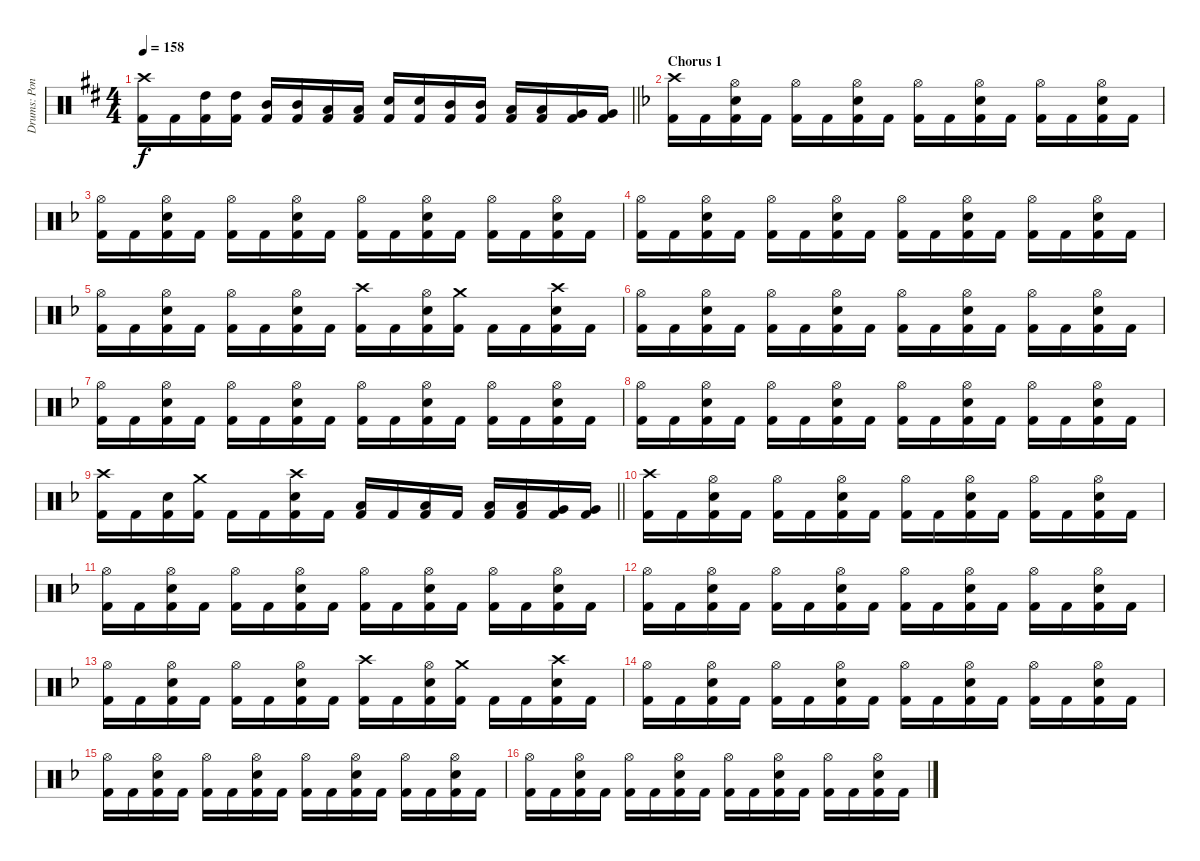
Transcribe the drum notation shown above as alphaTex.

\track ("Drums: Pontus Jansson" "Drums: Pon") {instrument percussion}
\staff {score}
\articulation defaults
\ts (4 4)
\tempo 158
\clef neutral
\barLineRight lightlight
\ks bminor
("Crash high (hit)" "Kick (hit) 2").16{dy f} "Kick (hit) 2".16 ("High Tom (hit)" "Kick (hit) 2").16 ("High Tom (hit)" "Kick (hit) 2").16 ("Mid Tom (hit)" "Kick (hit) 2").16 ("Mid Tom (hit)" "Kick (hit) 2").16 ("Low Tom (hit)" "Kick (hit) 2").16 ("Low Tom (hit)" "Kick (hit) 2").16 ("Electric Snare (hit)" "Kick (hit) 2").16 ("Electric Snare (hit)" "Kick (hit) 2").16 ("Mid Tom (hit)" "Kick (hit) 2").16 ("Mid Tom (hit)" "Kick (hit) 2").16 ("Low Tom (hit)" "Kick (hit) 2").16 ("Low Tom (hit)" "Kick (hit) 2").16 ("Very Low Tom (hit)" "Kick (hit) 2").16 ("Very Low Tom (hit)" "Kick (hit) 2").16 |
\section ("" "Chorus 1")
\ks dminor
("Crash high (hit)" "Kick (hit) 2").16 "Kick (hit) 2".16 ("Hi-Hat (open)" "Electric Snare (hit)" "Kick (hit) 2").16 "Kick (hit) 2".16 ("Hi-Hat (open)" "Kick (hit) 2").16 "Kick (hit) 2".16 ("Hi-Hat (open)" "Electric Snare (hit)" "Kick (hit) 2").16 "Kick (hit) 2".16 ("Hi-Hat (open)" "Kick (hit) 2").16 "Kick (hit) 2".16 ("Hi-Hat (open)" "Electric Snare (hit)" "Kick (hit) 2").16 "Kick (hit) 2".16 ("Hi-Hat (open)" "Kick (hit) 2").16 "Kick (hit) 2".16 ("Hi-Hat (open)" "Electric Snare (hit)" "Kick (hit) 2").16 "Kick (hit) 2".16 |
("Hi-Hat (open)" "Kick (hit) 2").16 "Kick (hit) 2".16 ("Hi-Hat (open)" "Electric Snare (hit)" "Kick (hit) 2").16 "Kick (hit) 2".16 ("Hi-Hat (open)" "Kick (hit) 2").16 "Kick (hit) 2".16 ("Hi-Hat (open)" "Electric Snare (hit)" "Kick (hit) 2").16 "Kick (hit) 2".16 ("Hi-Hat (open)" "Kick (hit) 2").16 "Kick (hit) 2".16 ("Hi-Hat (open)" "Electric Snare (hit)" "Kick (hit) 2").16 "Kick (hit) 2".16 ("Hi-Hat (open)" "Kick (hit) 2").16 "Kick (hit) 2".16 ("Hi-Hat (open)" "Electric Snare (hit)" "Kick (hit) 2").16 "Kick (hit) 2".16 |
("Hi-Hat (open)" "Kick (hit) 2").16 "Kick (hit) 2".16 ("Hi-Hat (open)" "Electric Snare (hit)" "Kick (hit) 2").16 "Kick (hit) 2".16 ("Hi-Hat (open)" "Kick (hit) 2").16 "Kick (hit) 2".16 ("Hi-Hat (open)" "Electric Snare (hit)" "Kick (hit) 2").16 "Kick (hit) 2".16 ("Hi-Hat (open)" "Kick (hit) 2").16 "Kick (hit) 2".16 ("Hi-Hat (open)" "Electric Snare (hit)" "Kick (hit) 2").16 "Kick (hit) 2".16 ("Hi-Hat (open)" "Kick (hit) 2").16 "Kick (hit) 2".16 ("Hi-Hat (open)" "Electric Snare (hit)" "Kick (hit) 2").16 "Kick (hit) 2".16 |
("Hi-Hat (open)" "Kick (hit) 2").16 "Kick (hit) 2".16 ("Hi-Hat (open)" "Electric Snare (hit)" "Kick (hit) 2").16 "Kick (hit) 2".16 ("Hi-Hat (open)" "Kick (hit) 2").16 "Kick (hit) 2".16 ("Hi-Hat (open)" "Electric Snare (hit)" "Kick (hit) 2").16 "Kick (hit) 2".16 ("Crash high (hit)" "Kick (hit) 2").16 "Kick (hit) 2".16 ("Hi-Hat (open)" "Electric Snare (hit)" "Kick (hit) 2").16 ("Crash medium (hit)" "Kick (hit) 2").16 "Kick (hit) 2".16 "Kick (hit) 2".16 ("Crash high (hit)" "Electric Snare (hit)" "Kick (hit) 2").16 "Kick (hit) 2".16 |
("Hi-Hat (open)" "Kick (hit) 2").16 "Kick (hit) 2".16 ("Hi-Hat (open)" "Electric Snare (hit)" "Kick (hit) 2").16 "Kick (hit) 2".16 ("Hi-Hat (open)" "Kick (hit) 2").16 "Kick (hit) 2".16 ("Hi-Hat (open)" "Electric Snare (hit)" "Kick (hit) 2").16 "Kick (hit) 2".16 ("Hi-Hat (open)" "Kick (hit) 2").16 "Kick (hit) 2".16 ("Hi-Hat (open)" "Electric Snare (hit)" "Kick (hit) 2").16 "Kick (hit) 2".16 ("Hi-Hat (open)" "Kick (hit) 2").16 "Kick (hit) 2".16 ("Hi-Hat (open)" "Electric Snare (hit)" "Kick (hit) 2").16 "Kick (hit) 2".16 |
("Hi-Hat (open)" "Kick (hit) 2").16 "Kick (hit) 2".16 ("Hi-Hat (open)" "Electric Snare (hit)" "Kick (hit) 2").16 "Kick (hit) 2".16 ("Hi-Hat (open)" "Kick (hit) 2").16 "Kick (hit) 2".16 ("Hi-Hat (open)" "Electric Snare (hit)" "Kick (hit) 2").16 "Kick (hit) 2".16 ("Hi-Hat (open)" "Kick (hit) 2").16 "Kick (hit) 2".16 ("Hi-Hat (open)" "Electric Snare (hit)" "Kick (hit) 2").16 "Kick (hit) 2".16 ("Hi-Hat (open)" "Kick (hit) 2").16 "Kick (hit) 2".16 ("Hi-Hat (open)" "Electric Snare (hit)" "Kick (hit) 2").16 "Kick (hit) 2".16 |
("Hi-Hat (open)" "Kick (hit) 2").16 "Kick (hit) 2".16 ("Hi-Hat (open)" "Electric Snare (hit)" "Kick (hit) 2").16 "Kick (hit) 2".16 ("Hi-Hat (open)" "Kick (hit) 2").16 "Kick (hit) 2".16 ("Hi-Hat (open)" "Electric Snare (hit)" "Kick (hit) 2").16 "Kick (hit) 2".16 ("Hi-Hat (open)" "Kick (hit) 2").16 "Kick (hit) 2".16 ("Hi-Hat (open)" "Electric Snare (hit)" "Kick (hit) 2").16 "Kick (hit) 2".16 ("Hi-Hat (open)" "Kick (hit) 2").16 "Kick (hit) 2".16 ("Hi-Hat (open)" "Electric Snare (hit)" "Kick (hit) 2").16 "Kick (hit) 2".16 |
\barLineRight lightlight
("Crash high (hit)" "Kick (hit) 2").16 "Kick (hit) 2".16 ("Electric Snare (hit)" "Kick (hit) 2").16 ("Crash medium (hit)" "Kick (hit) 2").16 "Kick (hit) 2".16 "Kick (hit) 2".16 ("Crash high (hit)" "Electric Snare (hit)" "Kick (hit) 2").16 "Kick (hit) 2".16 ("Low Tom (hit)" "Kick (hit) 2").16 "Kick (hit) 2".16 ("Low Tom (hit)" "Kick (hit) 2").16 "Kick (hit) 2".16 ("Low Tom (hit)" "Kick (hit) 2").16 ("Low Tom (hit)" "Kick (hit) 2").16 ("Very Low Tom (hit)" "Kick (hit) 2").16 ("Very Low Tom (hit)" "Kick (hit) 2").16 |
("Crash high (hit)" "Kick (hit) 2").16 "Kick (hit) 2".16 ("Hi-Hat (open)" "Electric Snare (hit)" "Kick (hit) 2").16 "Kick (hit) 2".16 ("Hi-Hat (open)" "Kick (hit) 2").16 "Kick (hit) 2".16 ("Hi-Hat (open)" "Electric Snare (hit)" "Kick (hit) 2").16 "Kick (hit) 2".16 ("Hi-Hat (open)" "Kick (hit) 2").16 "Kick (hit) 2".16 ("Hi-Hat (open)" "Electric Snare (hit)" "Kick (hit) 2").16 "Kick (hit) 2".16 ("Hi-Hat (open)" "Kick (hit) 2").16 "Kick (hit) 2".16 ("Hi-Hat (open)" "Electric Snare (hit)" "Kick (hit) 2").16 "Kick (hit) 2".16 |
("Hi-Hat (open)" "Kick (hit) 2").16 "Kick (hit) 2".16 ("Hi-Hat (open)" "Electric Snare (hit)" "Kick (hit) 2").16 "Kick (hit) 2".16 ("Hi-Hat (open)" "Kick (hit) 2").16 "Kick (hit) 2".16 ("Hi-Hat (open)" "Electric Snare (hit)" "Kick (hit) 2").16 "Kick (hit) 2".16 ("Hi-Hat (open)" "Kick (hit) 2").16 "Kick (hit) 2".16 ("Hi-Hat (open)" "Electric Snare (hit)" "Kick (hit) 2").16 "Kick (hit) 2".16 ("Hi-Hat (open)" "Kick (hit) 2").16 "Kick (hit) 2".16 ("Hi-Hat (open)" "Electric Snare (hit)" "Kick (hit) 2").16 "Kick (hit) 2".16 |
("Hi-Hat (open)" "Kick (hit) 2").16 "Kick (hit) 2".16 ("Hi-Hat (open)" "Electric Snare (hit)" "Kick (hit) 2").16 "Kick (hit) 2".16 ("Hi-Hat (open)" "Kick (hit) 2").16 "Kick (hit) 2".16 ("Hi-Hat (open)" "Electric Snare (hit)" "Kick (hit) 2").16 "Kick (hit) 2".16 ("Hi-Hat (open)" "Kick (hit) 2").16 "Kick (hit) 2".16 ("Hi-Hat (open)" "Electric Snare (hit)" "Kick (hit) 2").16 "Kick (hit) 2".16 ("Hi-Hat (open)" "Kick (hit) 2").16 "Kick (hit) 2".16 ("Hi-Hat (open)" "Electric Snare (hit)" "Kick (hit) 2").16 "Kick (hit) 2".16 |
("Hi-Hat (open)" "Kick (hit) 2").16 "Kick (hit) 2".16 ("Hi-Hat (open)" "Electric Snare (hit)" "Kick (hit) 2").16 "Kick (hit) 2".16 ("Hi-Hat (open)" "Kick (hit) 2").16 "Kick (hit) 2".16 ("Hi-Hat (open)" "Electric Snare (hit)" "Kick (hit) 2").16 "Kick (hit) 2".16 ("Crash high (hit)" "Kick (hit) 2").16 "Kick (hit) 2".16 ("Hi-Hat (open)" "Electric Snare (hit)" "Kick (hit) 2").16 ("Crash medium (hit)" "Kick (hit) 2").16 "Kick (hit) 2".16 "Kick (hit) 2".16 ("Crash high (hit)" "Electric Snare (hit)" "Kick (hit) 2").16 "Kick (hit) 2".16 |
("Hi-Hat (open)" "Kick (hit) 2").16 "Kick (hit) 2".16 ("Hi-Hat (open)" "Electric Snare (hit)" "Kick (hit) 2").16 "Kick (hit) 2".16 ("Hi-Hat (open)" "Kick (hit) 2").16 "Kick (hit) 2".16 ("Hi-Hat (open)" "Electric Snare (hit)" "Kick (hit) 2").16 "Kick (hit) 2".16 ("Hi-Hat (open)" "Kick (hit) 2").16 "Kick (hit) 2".16 ("Hi-Hat (open)" "Electric Snare (hit)" "Kick (hit) 2").16 "Kick (hit) 2".16 ("Hi-Hat (open)" "Kick (hit) 2").16 "Kick (hit) 2".16 ("Hi-Hat (open)" "Electric Snare (hit)" "Kick (hit) 2").16 "Kick (hit) 2".16 |
("Hi-Hat (open)" "Kick (hit) 2").16 "Kick (hit) 2".16 ("Hi-Hat (open)" "Electric Snare (hit)" "Kick (hit) 2").16 "Kick (hit) 2".16 ("Hi-Hat (open)" "Kick (hit) 2").16 "Kick (hit) 2".16 ("Hi-Hat (open)" "Electric Snare (hit)" "Kick (hit) 2").16 "Kick (hit) 2".16 ("Hi-Hat (open)" "Kick (hit) 2").16 "Kick (hit) 2".16 ("Hi-Hat (open)" "Electric Snare (hit)" "Kick (hit) 2").16 "Kick (hit) 2".16 ("Hi-Hat (open)" "Kick (hit) 2").16 "Kick (hit) 2".16 ("Hi-Hat (open)" "Electric Snare (hit)" "Kick (hit) 2").16 "Kick (hit) 2".16 |
("Hi-Hat (open)" "Kick (hit) 2").16 "Kick (hit) 2".16 ("Hi-Hat (open)" "Electric Snare (hit)" "Kick (hit) 2").16 "Kick (hit) 2".16 ("Hi-Hat (open)" "Kick (hit) 2").16 "Kick (hit) 2".16 ("Hi-Hat (open)" "Electric Snare (hit)" "Kick (hit) 2").16 "Kick (hit) 2".16 ("Hi-Hat (open)" "Kick (hit) 2").16 "Kick (hit) 2".16 ("Hi-Hat (open)" "Electric Snare (hit)" "Kick (hit) 2").16 "Kick (hit) 2".16 ("Hi-Hat (open)" "Kick (hit) 2").16 "Kick (hit) 2".16 ("Hi-Hat (open)" "Electric Snare (hit)" "Kick (hit) 2").16 "Kick (hit) 2".16
